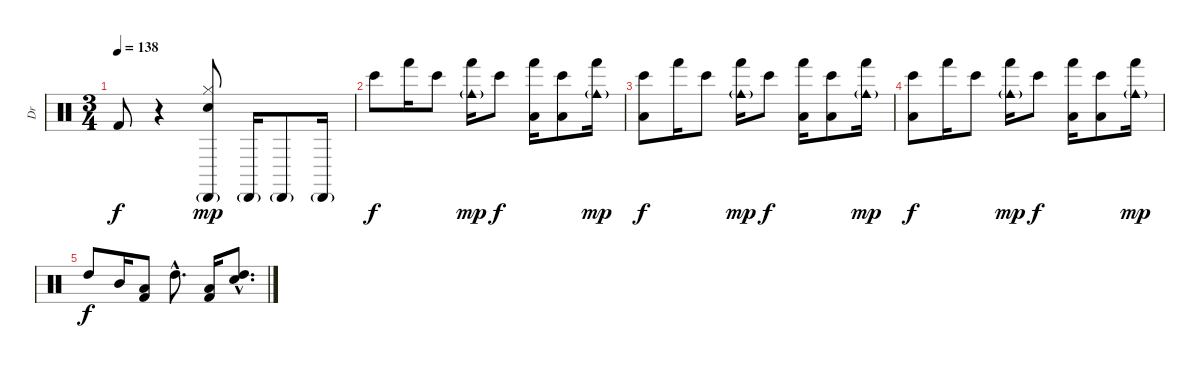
\track ("Dr" "Dr") {instrument percussion}
\staff {score}
\articulation defaults
\ts (3 4)
\tempo 138
\clef neutral
\ks c "Kick (hit) 2".8{dy f}
r.4 ("Cabasa (hit)"{g} "Hi-Hat (closed)" "Electric Snare (hit)").8{dy mp} "Cabasa (hit)"{g}.16 "Cabasa (hit)"{g}.8 "Cabasa (hit)"{g}.16 |
"Bongo High (hit)".8{dy f} "Hand (hit)".16 "Bongo High (hit)".8 ("Cowbell medium (hit)"{g} "Hand (hit)").16{dy mp} "Bongo High (hit)".8{dy f} ("Hand (hit)" "Low Floor Tom (hit)").16 ("Bongo High (hit)" "Low Floor Tom (hit)").8 ("Cowbell medium (hit)"{g} "Hand (hit)").16{dy mp} |
("Bongo High (hit)" "Low Floor Tom (hit)").8{dy f} "Hand (hit)".16 "Bongo High (hit)".8 ("Cowbell medium (hit)"{g} "Hand (hit)").16{dy mp} "Bongo High (hit)".8{dy f} ("Hand (hit)" "Low Floor Tom (hit)").16 ("Bongo High (hit)" "Low Floor Tom (hit)").8 ("Cowbell medium (hit)"{g} "Hand (hit)").16{dy mp} |
("Bongo High (hit)" "Low Floor Tom (hit)").8{dy f} "Hand (hit)".16 "Bongo High (hit)".8 ("Cowbell medium (hit)"{g} "Hand (hit)").16{dy mp} "Bongo High (hit)".8{dy f} ("Hand (hit)" "Low Floor Tom (hit)").16 ("Bongo High (hit)" "Low Floor Tom (hit)").8 ("Cowbell medium (hit)"{g} "Hand (hit)").16{dy mp} |
"High Tom (hit)".8{dy f} "Mid Tom (hit)".16 ("Low Tom (hit)" "Kick (hit) 2").8 "High Tom (hit)"{hac}.8{d} ("Low Tom (hit)" "Kick (hit) 2").16 ("Electric Snare (hit)"{hac} "High Tom (hit)"{hac}).8{d}
